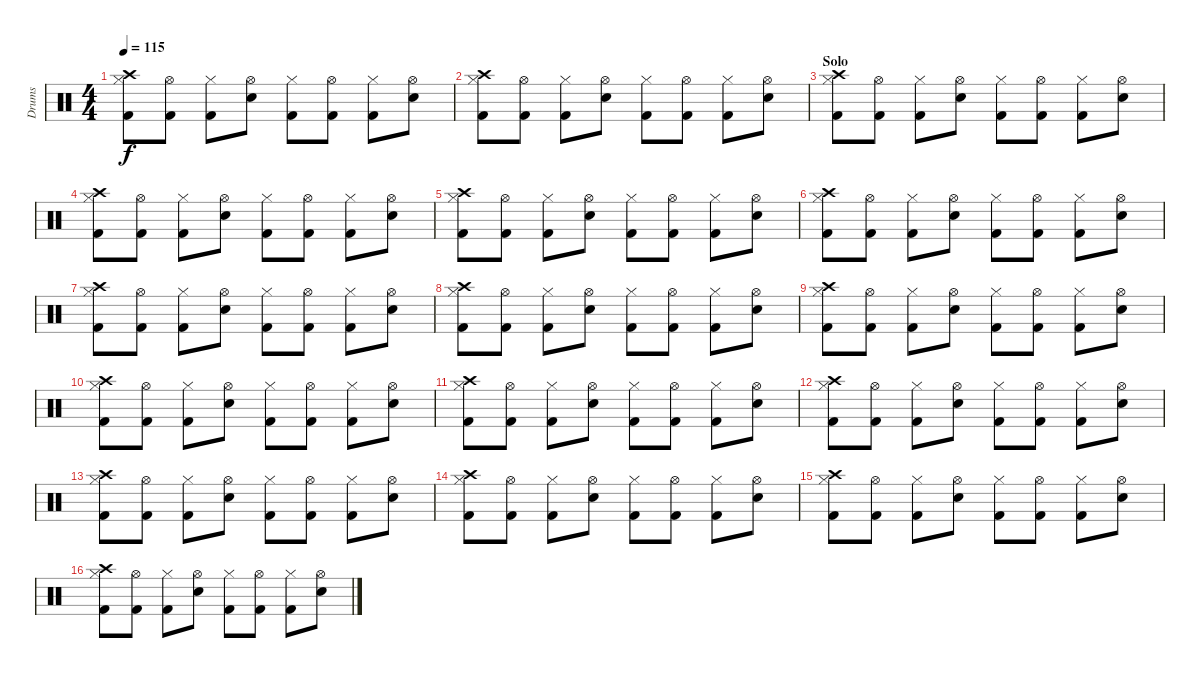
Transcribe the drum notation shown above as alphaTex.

\track ("Drums" "Drums") {instrument percussion}
\staff {score}
\articulation defaults
\ts (4 4)
\tempo 115
\clef neutral
\ks c
("Crash high (hit)" "Hi-Hat (closed)" "Kick (hit) 2").8{dy f} ("Hi-Hat (open)" "Kick (hit) 2").8 ("Hi-Hat (closed)" "Kick (hit) 2").8 ("Hi-Hat (open)" "Snare (hit) 2").8 ("Hi-Hat (closed)" "Kick (hit) 2").8 ("Hi-Hat (open)" "Kick (hit) 2").8 ("Hi-Hat (closed)" "Kick (hit) 2").8 ("Hi-Hat (open)" "Snare (hit) 2").8 |
("Crash high (hit)" "Hi-Hat (closed)" "Kick (hit) 2").8 ("Hi-Hat (open)" "Kick (hit) 2").8 ("Hi-Hat (closed)" "Kick (hit) 2").8 ("Hi-Hat (open)" "Snare (hit) 2").8 ("Hi-Hat (closed)" "Kick (hit) 2").8 ("Hi-Hat (open)" "Kick (hit) 2").8 ("Hi-Hat (closed)" "Kick (hit) 2").8 ("Hi-Hat (open)" "Snare (hit) 2").8 |
\section ("" "Solo ")
("Crash high (hit)" "Hi-Hat (closed)" "Kick (hit) 2").8 ("Hi-Hat (open)" "Kick (hit) 2").8 ("Hi-Hat (closed)" "Kick (hit) 2").8 ("Hi-Hat (open)" "Snare (hit) 2").8 ("Hi-Hat (closed)" "Kick (hit) 2").8 ("Hi-Hat (open)" "Kick (hit) 2").8 ("Hi-Hat (closed)" "Kick (hit) 2").8 ("Hi-Hat (open)" "Snare (hit) 2").8 |
("Crash high (hit)" "Hi-Hat (closed)" "Kick (hit) 2").8 ("Hi-Hat (open)" "Kick (hit) 2").8 ("Hi-Hat (closed)" "Kick (hit) 2").8 ("Hi-Hat (open)" "Snare (hit) 2").8 ("Hi-Hat (closed)" "Kick (hit) 2").8 ("Hi-Hat (open)" "Kick (hit) 2").8 ("Hi-Hat (closed)" "Kick (hit) 2").8 ("Hi-Hat (open)" "Snare (hit) 2").8 |
("Crash high (hit)" "Hi-Hat (closed)" "Kick (hit) 2").8 ("Hi-Hat (open)" "Kick (hit) 2").8 ("Hi-Hat (closed)" "Kick (hit) 2").8 ("Hi-Hat (open)" "Snare (hit) 2").8 ("Hi-Hat (closed)" "Kick (hit) 2").8 ("Hi-Hat (open)" "Kick (hit) 2").8 ("Hi-Hat (closed)" "Kick (hit) 2").8 ("Hi-Hat (open)" "Snare (hit) 2").8 |
("Crash high (hit)" "Hi-Hat (closed)" "Kick (hit) 2").8 ("Hi-Hat (open)" "Kick (hit) 2").8 ("Hi-Hat (closed)" "Kick (hit) 2").8 ("Hi-Hat (open)" "Snare (hit) 2").8 ("Hi-Hat (closed)" "Kick (hit) 2").8 ("Hi-Hat (open)" "Kick (hit) 2").8 ("Hi-Hat (closed)" "Kick (hit) 2").8 ("Hi-Hat (open)" "Snare (hit) 2").8 |
("Crash high (hit)" "Hi-Hat (closed)" "Kick (hit) 2").8 ("Hi-Hat (open)" "Kick (hit) 2").8 ("Hi-Hat (closed)" "Kick (hit) 2").8 ("Hi-Hat (open)" "Snare (hit) 2").8 ("Hi-Hat (closed)" "Kick (hit) 2").8 ("Hi-Hat (open)" "Kick (hit) 2").8 ("Hi-Hat (closed)" "Kick (hit) 2").8 ("Hi-Hat (open)" "Snare (hit) 2").8 |
("Crash high (hit)" "Hi-Hat (closed)" "Kick (hit) 2").8 ("Hi-Hat (open)" "Kick (hit) 2").8 ("Hi-Hat (closed)" "Kick (hit) 2").8 ("Hi-Hat (open)" "Snare (hit) 2").8 ("Hi-Hat (closed)" "Kick (hit) 2").8 ("Hi-Hat (open)" "Kick (hit) 2").8 ("Hi-Hat (closed)" "Kick (hit) 2").8 ("Hi-Hat (open)" "Snare (hit) 2").8 |
("Crash high (hit)" "Hi-Hat (closed)" "Kick (hit) 2").8 ("Hi-Hat (open)" "Kick (hit) 2").8 ("Hi-Hat (closed)" "Kick (hit) 2").8 ("Hi-Hat (open)" "Snare (hit) 2").8 ("Hi-Hat (closed)" "Kick (hit) 2").8 ("Hi-Hat (open)" "Kick (hit) 2").8 ("Hi-Hat (closed)" "Kick (hit) 2").8 ("Hi-Hat (open)" "Snare (hit) 2").8 |
("Crash high (hit)" "Hi-Hat (closed)" "Kick (hit) 2").8 ("Hi-Hat (open)" "Kick (hit) 2").8 ("Hi-Hat (closed)" "Kick (hit) 2").8 ("Hi-Hat (open)" "Snare (hit) 2").8 ("Hi-Hat (closed)" "Kick (hit) 2").8 ("Hi-Hat (open)" "Kick (hit) 2").8 ("Hi-Hat (closed)" "Kick (hit) 2").8 ("Hi-Hat (open)" "Snare (hit) 2").8 |
("Crash high (hit)" "Hi-Hat (closed)" "Kick (hit) 2").8 ("Hi-Hat (open)" "Kick (hit) 2").8 ("Hi-Hat (closed)" "Kick (hit) 2").8 ("Hi-Hat (open)" "Snare (hit) 2").8 ("Hi-Hat (closed)" "Kick (hit) 2").8 ("Hi-Hat (open)" "Kick (hit) 2").8 ("Hi-Hat (closed)" "Kick (hit) 2").8 ("Hi-Hat (open)" "Snare (hit) 2").8 |
("Crash high (hit)" "Hi-Hat (closed)" "Kick (hit) 2").8 ("Hi-Hat (open)" "Kick (hit) 2").8 ("Hi-Hat (closed)" "Kick (hit) 2").8 ("Hi-Hat (open)" "Snare (hit) 2").8 ("Hi-Hat (closed)" "Kick (hit) 2").8 ("Hi-Hat (open)" "Kick (hit) 2").8 ("Hi-Hat (closed)" "Kick (hit) 2").8 ("Hi-Hat (open)" "Snare (hit) 2").8 |
("Crash high (hit)" "Hi-Hat (closed)" "Kick (hit) 2").8 ("Hi-Hat (open)" "Kick (hit) 2").8 ("Hi-Hat (closed)" "Kick (hit) 2").8 ("Hi-Hat (open)" "Snare (hit) 2").8 ("Hi-Hat (closed)" "Kick (hit) 2").8 ("Hi-Hat (open)" "Kick (hit) 2").8 ("Hi-Hat (closed)" "Kick (hit) 2").8 ("Hi-Hat (open)" "Snare (hit) 2").8 |
("Crash high (hit)" "Hi-Hat (closed)" "Kick (hit) 2").8 ("Hi-Hat (open)" "Kick (hit) 2").8 ("Hi-Hat (closed)" "Kick (hit) 2").8 ("Hi-Hat (open)" "Snare (hit) 2").8 ("Hi-Hat (closed)" "Kick (hit) 2").8 ("Hi-Hat (open)" "Kick (hit) 2").8 ("Hi-Hat (closed)" "Kick (hit) 2").8 ("Hi-Hat (open)" "Snare (hit) 2").8 |
("Crash high (hit)" "Hi-Hat (closed)" "Kick (hit) 2").8 ("Hi-Hat (open)" "Kick (hit) 2").8 ("Hi-Hat (closed)" "Kick (hit) 2").8 ("Hi-Hat (open)" "Snare (hit) 2").8 ("Hi-Hat (closed)" "Kick (hit) 2").8 ("Hi-Hat (open)" "Kick (hit) 2").8 ("Hi-Hat (closed)" "Kick (hit) 2").8 ("Hi-Hat (open)" "Snare (hit) 2").8 |
("Crash high (hit)" "Hi-Hat (closed)" "Kick (hit) 2").8 ("Hi-Hat (open)" "Kick (hit) 2").8 ("Hi-Hat (closed)" "Kick (hit) 2").8 ("Hi-Hat (open)" "Snare (hit) 2").8 ("Hi-Hat (closed)" "Kick (hit) 2").8 ("Hi-Hat (open)" "Kick (hit) 2").8 ("Hi-Hat (closed)" "Kick (hit) 2").8 ("Hi-Hat (open)" "Snare (hit) 2").8
